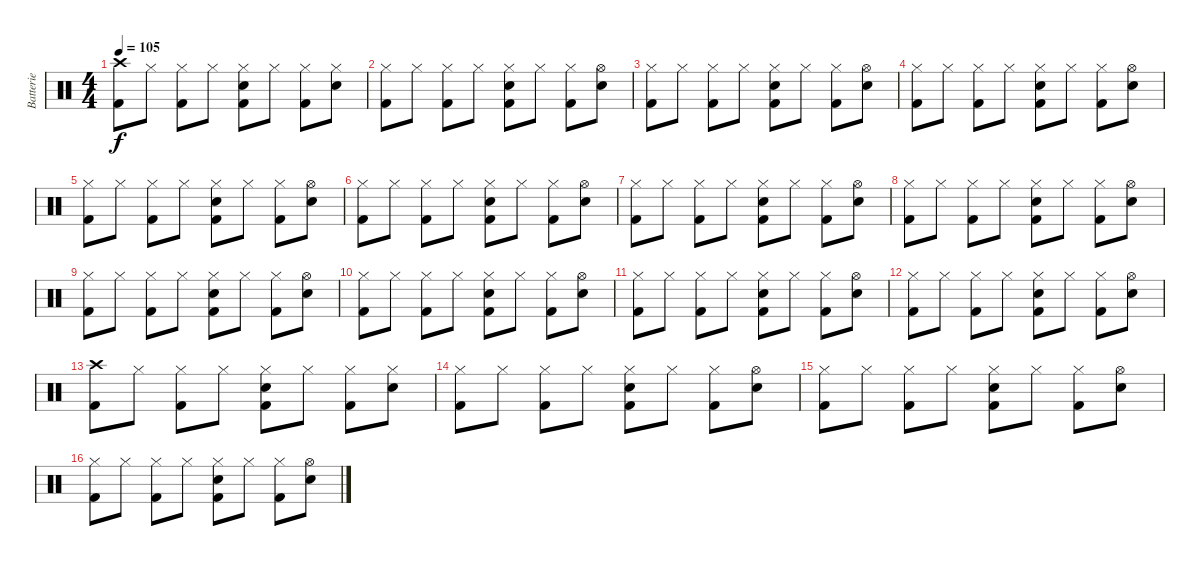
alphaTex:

\track ("Batterie" "Batterie") {instrument percussion}
\staff {score}
\articulation defaults
\ts (4 4)
\tempo 105
\clef neutral
\ks c
("Crash high (hit)" "Kick (hit) 2").8{dy f} "Hi-Hat (closed)".8 ("Hi-Hat (closed)" "Kick (hit) 2").8 "Hi-Hat (closed)".8 ("Hi-Hat (closed)" "Snare (hit) 2" "Kick (hit) 2").8 "Hi-Hat (closed)".8 ("Hi-Hat (closed)" "Kick (hit) 2").8 ("Hi-Hat (closed)" "Snare (hit) 2").8 |
("Hi-Hat (closed)" "Kick (hit) 2").8 "Hi-Hat (closed)".8 ("Hi-Hat (closed)" "Kick (hit) 2").8 "Hi-Hat (closed)".8 ("Hi-Hat (closed)" "Snare (hit) 2" "Kick (hit) 2").8 "Hi-Hat (closed)".8 ("Hi-Hat (closed)" "Kick (hit) 2").8 ("Hi-Hat (open)" "Snare (hit) 2").8 |
("Hi-Hat (closed)" "Kick (hit) 2").8 "Hi-Hat (closed)".8 ("Hi-Hat (closed)" "Kick (hit) 2").8 "Hi-Hat (closed)".8 ("Hi-Hat (closed)" "Snare (hit) 2" "Kick (hit) 2").8 "Hi-Hat (closed)".8 ("Hi-Hat (closed)" "Kick (hit) 2").8 ("Hi-Hat (open)" "Snare (hit) 2").8 |
("Hi-Hat (closed)" "Kick (hit) 2").8 "Hi-Hat (closed)".8 ("Hi-Hat (closed)" "Kick (hit) 2").8 "Hi-Hat (closed)".8 ("Hi-Hat (closed)" "Snare (hit) 2" "Kick (hit) 2").8 "Hi-Hat (closed)".8 ("Hi-Hat (closed)" "Kick (hit) 2").8 ("Hi-Hat (open)" "Snare (hit) 2").8 |
("Hi-Hat (closed)" "Kick (hit) 2").8 "Hi-Hat (closed)".8 ("Hi-Hat (closed)" "Kick (hit) 2").8 "Hi-Hat (closed)".8 ("Hi-Hat (closed)" "Snare (hit) 2" "Kick (hit) 2").8 "Hi-Hat (closed)".8 ("Hi-Hat (closed)" "Kick (hit) 2").8 ("Hi-Hat (open)" "Snare (hit) 2").8 |
("Hi-Hat (closed)" "Kick (hit) 2").8 "Hi-Hat (closed)".8 ("Hi-Hat (closed)" "Kick (hit) 2").8 "Hi-Hat (closed)".8 ("Hi-Hat (closed)" "Snare (hit) 2" "Kick (hit) 2").8 "Hi-Hat (closed)".8 ("Hi-Hat (closed)" "Kick (hit) 2").8 ("Hi-Hat (open)" "Snare (hit) 2").8 |
("Hi-Hat (closed)" "Kick (hit) 2").8 "Hi-Hat (closed)".8 ("Hi-Hat (closed)" "Kick (hit) 2").8 "Hi-Hat (closed)".8 ("Hi-Hat (closed)" "Snare (hit) 2" "Kick (hit) 2").8 "Hi-Hat (closed)".8 ("Hi-Hat (closed)" "Kick (hit) 2").8 ("Hi-Hat (open)" "Snare (hit) 2").8 |
("Hi-Hat (closed)" "Kick (hit) 2").8 "Hi-Hat (closed)".8 ("Hi-Hat (closed)" "Kick (hit) 2").8 "Hi-Hat (closed)".8 ("Hi-Hat (closed)" "Snare (hit) 2" "Kick (hit) 2").8 "Hi-Hat (closed)".8 ("Hi-Hat (closed)" "Kick (hit) 2").8 ("Hi-Hat (open)" "Snare (hit) 2").8 |
("Hi-Hat (closed)" "Kick (hit) 2").8 "Hi-Hat (closed)".8 ("Hi-Hat (closed)" "Kick (hit) 2").8 "Hi-Hat (closed)".8 ("Hi-Hat (closed)" "Snare (hit) 2" "Kick (hit) 2").8 "Hi-Hat (closed)".8 ("Hi-Hat (closed)" "Kick (hit) 2").8 ("Hi-Hat (open)" "Snare (hit) 2").8 |
("Hi-Hat (closed)" "Kick (hit) 2").8 "Hi-Hat (closed)".8 ("Hi-Hat (closed)" "Kick (hit) 2").8 "Hi-Hat (closed)".8 ("Hi-Hat (closed)" "Snare (hit) 2" "Kick (hit) 2").8 "Hi-Hat (closed)".8 ("Hi-Hat (closed)" "Kick (hit) 2").8 ("Hi-Hat (open)" "Snare (hit) 2").8 |
("Hi-Hat (closed)" "Kick (hit) 2").8 "Hi-Hat (closed)".8 ("Hi-Hat (closed)" "Kick (hit) 2").8 "Hi-Hat (closed)".8 ("Hi-Hat (closed)" "Snare (hit) 2" "Kick (hit) 2").8 "Hi-Hat (closed)".8 ("Hi-Hat (closed)" "Kick (hit) 2").8 ("Hi-Hat (open)" "Snare (hit) 2").8 |
("Hi-Hat (closed)" "Kick (hit) 2").8 "Hi-Hat (closed)".8 ("Hi-Hat (closed)" "Kick (hit) 2").8 "Hi-Hat (closed)".8 ("Hi-Hat (closed)" "Snare (hit) 2" "Kick (hit) 2").8 "Hi-Hat (closed)".8 ("Hi-Hat (closed)" "Kick (hit) 2").8 ("Hi-Hat (open)" "Snare (hit) 2").8 |
("Crash high (hit)" "Kick (hit) 2").8 "Hi-Hat (closed)".8 ("Hi-Hat (closed)" "Kick (hit) 2").8 "Hi-Hat (closed)".8 ("Hi-Hat (closed)" "Snare (hit) 2" "Kick (hit) 2").8 "Hi-Hat (closed)".8 ("Hi-Hat (closed)" "Kick (hit) 2").8 ("Hi-Hat (closed)" "Snare (hit) 2").8 |
("Hi-Hat (closed)" "Kick (hit) 2").8 "Hi-Hat (closed)".8 ("Hi-Hat (closed)" "Kick (hit) 2").8 "Hi-Hat (closed)".8 ("Hi-Hat (closed)" "Snare (hit) 2" "Kick (hit) 2").8 "Hi-Hat (closed)".8 ("Hi-Hat (closed)" "Kick (hit) 2").8 ("Hi-Hat (open)" "Snare (hit) 2").8 |
("Hi-Hat (closed)" "Kick (hit) 2").8 "Hi-Hat (closed)".8 ("Hi-Hat (closed)" "Kick (hit) 2").8 "Hi-Hat (closed)".8 ("Hi-Hat (closed)" "Snare (hit) 2" "Kick (hit) 2").8 "Hi-Hat (closed)".8 ("Hi-Hat (closed)" "Kick (hit) 2").8 ("Hi-Hat (open)" "Snare (hit) 2").8 |
("Hi-Hat (closed)" "Kick (hit) 2").8 "Hi-Hat (closed)".8 ("Hi-Hat (closed)" "Kick (hit) 2").8 "Hi-Hat (closed)".8 ("Hi-Hat (closed)" "Snare (hit) 2" "Kick (hit) 2").8 "Hi-Hat (closed)".8 ("Hi-Hat (closed)" "Kick (hit) 2").8 ("Hi-Hat (open)" "Snare (hit) 2").8
